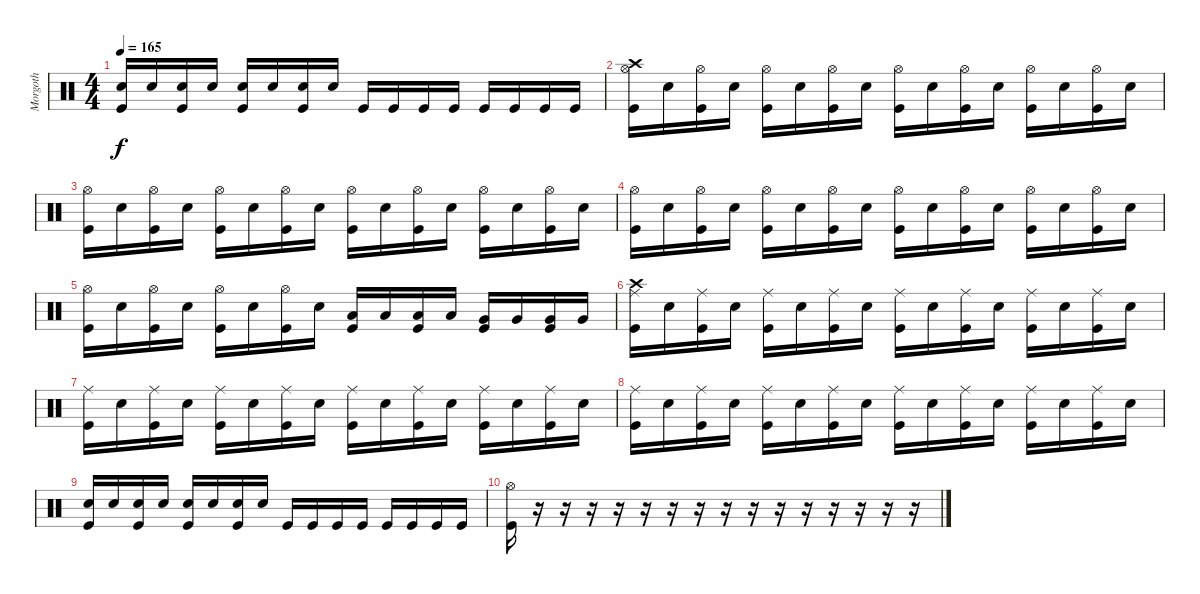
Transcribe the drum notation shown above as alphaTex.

\track ("Morgoth" "Morgoth") {instrument percussion}
\staff {score}
\articulation defaults
\ts (4 4)
\tempo 165
\clef neutral
\ks c
("Kick (hit)" "Snare (hit) 2").16{dy f} "Snare (hit) 2".16 ("Kick (hit)" "Snare (hit) 2").16 "Snare (hit) 2".16 ("Kick (hit)" "Snare (hit) 2").16 "Snare (hit) 2".16 ("Kick (hit)" "Snare (hit) 2").16 "Snare (hit) 2".16 "Kick (hit)".16 "Kick (hit)".16 "Kick (hit)".16 "Kick (hit)".16 "Kick (hit)".16 "Kick (hit)".16 "Kick (hit)".16 "Kick (hit)".16 |
("Kick (hit)" "Crash high (hit)" "Hi-Hat (open)").16 "Snare (hit) 2".16 ("Kick (hit)" "Hi-Hat (open)").16 "Snare (hit) 2".16 ("Kick (hit)" "Hi-Hat (open)").16 "Snare (hit) 2".16 ("Kick (hit)" "Hi-Hat (open)").16 "Snare (hit) 2".16 ("Kick (hit)" "Hi-Hat (open)").16 "Snare (hit) 2".16 ("Kick (hit)" "Hi-Hat (open)").16 "Snare (hit) 2".16 ("Kick (hit)" "Hi-Hat (open)").16 "Snare (hit) 2".16 ("Kick (hit)" "Hi-Hat (open)").16 "Snare (hit) 2".16 |
("Kick (hit)" "Hi-Hat (open)").16 "Snare (hit) 2".16 ("Kick (hit)" "Hi-Hat (open)").16 "Snare (hit) 2".16 ("Kick (hit)" "Hi-Hat (open)").16 "Snare (hit) 2".16 ("Kick (hit)" "Hi-Hat (open)").16 "Snare (hit) 2".16 ("Kick (hit)" "Hi-Hat (open)").16 "Snare (hit) 2".16 ("Kick (hit)" "Hi-Hat (open)").16 "Snare (hit) 2".16 ("Kick (hit)" "Hi-Hat (open)").16 "Snare (hit) 2".16 ("Kick (hit)" "Hi-Hat (open)").16 "Snare (hit) 2".16 |
("Kick (hit)" "Hi-Hat (open)").16 "Snare (hit) 2".16 ("Kick (hit)" "Hi-Hat (open)").16 "Snare (hit) 2".16 ("Kick (hit)" "Hi-Hat (open)").16 "Snare (hit) 2".16 ("Kick (hit)" "Hi-Hat (open)").16 "Snare (hit) 2".16 ("Kick (hit)" "Hi-Hat (open)").16 "Snare (hit) 2".16 ("Kick (hit)" "Hi-Hat (open)").16 "Snare (hit) 2".16 ("Kick (hit)" "Hi-Hat (open)").16 "Snare (hit) 2".16 ("Kick (hit)" "Hi-Hat (open)").16 "Snare (hit) 2".16 |
("Kick (hit)" "Hi-Hat (open)").16 "Snare (hit) 2".16 ("Kick (hit)" "Hi-Hat (open)").16 "Snare (hit) 2".16 ("Kick (hit)" "Hi-Hat (open)").16 "Snare (hit) 2".16 ("Kick (hit)" "Hi-Hat (open)").16 "Snare (hit) 2".16 ("Kick (hit)" "Low Tom (hit)").16 "Low Tom (hit)".16 ("Kick (hit)" "Low Tom (hit)").16 "Low Tom (hit)".16 ("Kick (hit)" "Very Low Tom (hit)").16 "Very Low Tom (hit)".16 ("Kick (hit)" "Very Low Tom (hit)").16 "Very Low Tom (hit)".16 |
("Kick (hit)" "Crash high (hit)" "Ride (middle)").16 "Snare (hit) 2".16 ("Kick (hit)" "Ride (middle)").16 "Snare (hit) 2".16 ("Kick (hit)" "Ride (middle)").16 "Snare (hit) 2".16 ("Kick (hit)" "Ride (middle)").16 "Snare (hit) 2".16 ("Kick (hit)" "Ride (middle)").16 "Snare (hit) 2".16 ("Kick (hit)" "Ride (middle)").16 "Snare (hit) 2".16 ("Kick (hit)" "Ride (middle)").16 "Snare (hit) 2".16 ("Kick (hit)" "Ride (middle)").16 "Snare (hit) 2".16 |
("Kick (hit)" "Ride (middle)").16 "Snare (hit) 2".16 ("Kick (hit)" "Ride (middle)").16 "Snare (hit) 2".16 ("Kick (hit)" "Ride (middle)").16 "Snare (hit) 2".16 ("Kick (hit)" "Ride (middle)").16 "Snare (hit) 2".16 ("Kick (hit)" "Ride (middle)").16 "Snare (hit) 2".16 ("Kick (hit)" "Ride (middle)").16 "Snare (hit) 2".16 ("Kick (hit)" "Ride (middle)").16 "Snare (hit) 2".16 ("Kick (hit)" "Ride (middle)").16 "Snare (hit) 2".16 |
("Kick (hit)" "Ride (middle)").16 "Snare (hit) 2".16 ("Kick (hit)" "Ride (middle)").16 "Snare (hit) 2".16 ("Kick (hit)" "Ride (middle)").16 "Snare (hit) 2".16 ("Kick (hit)" "Ride (middle)").16 "Snare (hit) 2".16 ("Kick (hit)" "Ride (middle)").16 "Snare (hit) 2".16 ("Kick (hit)" "Ride (middle)").16 "Snare (hit) 2".16 ("Kick (hit)" "Ride (middle)").16 "Snare (hit) 2".16 ("Kick (hit)" "Ride (middle)").16 "Snare (hit) 2".16 |
("Kick (hit)" "Snare (hit) 2").16 "Snare (hit) 2".16 ("Kick (hit)" "Snare (hit) 2").16 "Snare (hit) 2".16 ("Kick (hit)" "Snare (hit) 2").16 "Snare (hit) 2".16 ("Kick (hit)" "Snare (hit) 2").16 "Snare (hit) 2".16 "Kick (hit)".16 "Kick (hit)".16 "Kick (hit)".16 "Kick (hit)".16 "Kick (hit)".16 "Kick (hit)".16 "Kick (hit)".16 "Kick (hit)".16 |
("Hi-Hat (open)" "Kick (hit)").16 r.16 r.16 r.16 r.16 r.16 r.16 r.16 r.16 r.16 r.16 r.16 r.16 r.16 r.16 r.16
